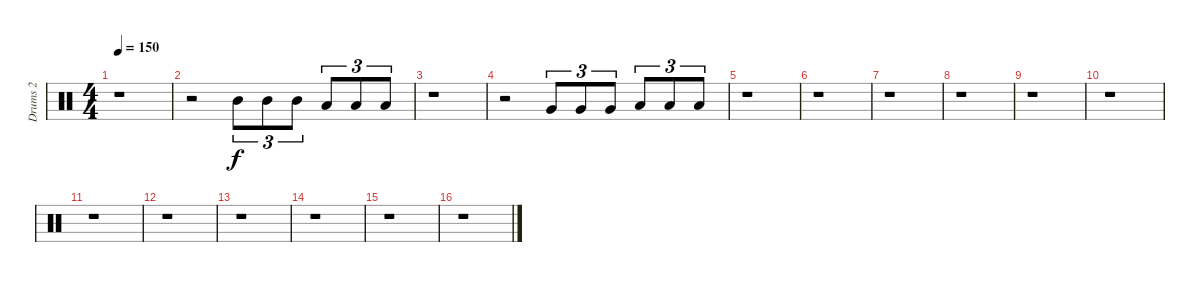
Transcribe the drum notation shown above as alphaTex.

\track ("Drums 2" "Drums 2") {instrument percussion}
\staff {score}
\articulation defaults
\ts (4 4)
\tempo 150
\clef neutral
\ks c
r.1{dy f} |
r.2 "Mid Tom (hit)".8{tu (3 2)} "Mid Tom (hit)".8{tu (3 2)} "Mid Tom (hit)".8{tu (3 2)} "Low Tom (hit)".8{tu (3 2)} "Low Tom (hit)".8{tu (3 2)} "Low Tom (hit)".8{tu (3 2)} |
r.1 |
r.2 "Very Low Tom (hit)".8{tu (3 2)} "Very Low Tom (hit)".8{tu (3 2)} "Very Low Tom (hit)".8{tu (3 2)} "Low Floor Tom (hit)".8{tu (3 2)} "Low Floor Tom (hit)".8{tu (3 2)} "Low Floor Tom (hit)".8{tu (3 2)} |
r.1 |
r.1 |
r.1 |
r.1 |
r.1 |
r.1 |
r.1 |
r.1 |
r.1 |
r.1 |
r.1 |
r.1
